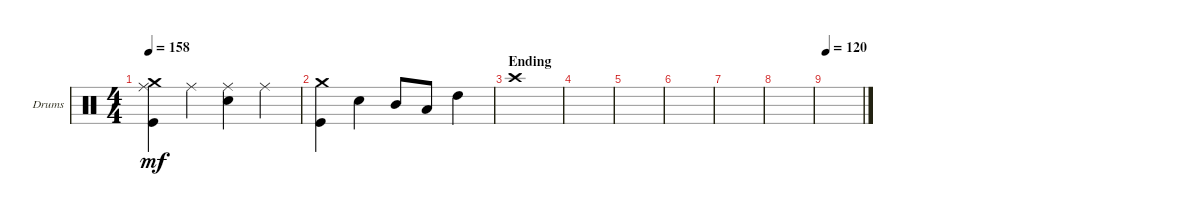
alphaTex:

\defaultSystemsLayout 4
\bracketExtendMode groupsimilarinstruments
\firstSystemTrackNameOrientation horizontal
\otherSystemsTrackNameOrientation horizontal
\track ("Drumkit" "Drums") {instrument percussion}
\staff {score}
\articulation defaults
\ts (4 4)
\tempo 158
\clef neutral
\ks c
("Kick (hit)" "Ride (middle)" "Crash medium (hit)").4{dy mf} "Ride (middle)".4 ("Ride (middle)" "Snare (hit) 2").4 "Ride (middle)".4 |
("Kick (hit)" "Crash medium (hit)").4 "Snare (hit) 2".4 "Mid Tom (hit)".8 "Low Tom (hit)".8 "High Tom (hit)".4 |
\section ("" "Ending")
"Crash high (hit)".1 |
|
|
|
|
|
\tempo 120
